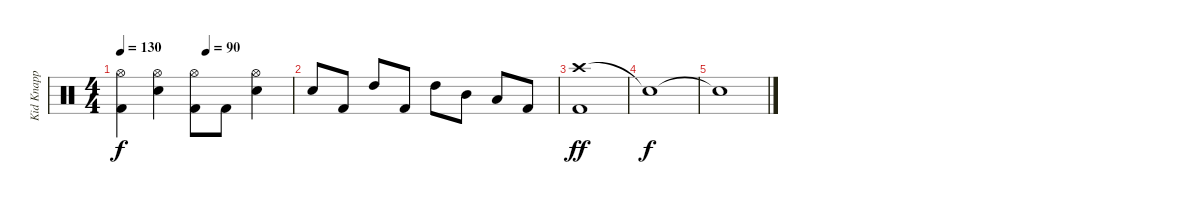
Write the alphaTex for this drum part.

\track ("Kid Knapp (Drums)" "Kid Knapp ") {instrument percussion}
\staff {score}
\articulation defaults
\ts (4 4)
\tempo 130
\tempo (90 0.5)
\clef neutral
\ks c
("Hi-Hat (open)" "Kick (hit) 2").4{dy f} ("Hi-Hat (open)" "Electric Snare (hit)").4 ("Hi-Hat (open)" "Kick (hit) 2").8 "Kick (hit) 2".8 ("Hi-Hat (open)" "Electric Snare (hit)").4 |
"Electric Snare (hit)".8 "Kick (hit) 2".8 "High Tom (hit)".8 "Kick (hit) 2".8 "High Tom (hit)".8 "Mid Tom (hit)".8 "Low Tom (hit)".8 "Kick (hit) 2".8 |
("Crash high (hit)" "Kick (hit) 2").1{dy ff} |
"Snare (hit)"{t}.1{dy f volume 0} |
"Snare (hit)"{t}.1
